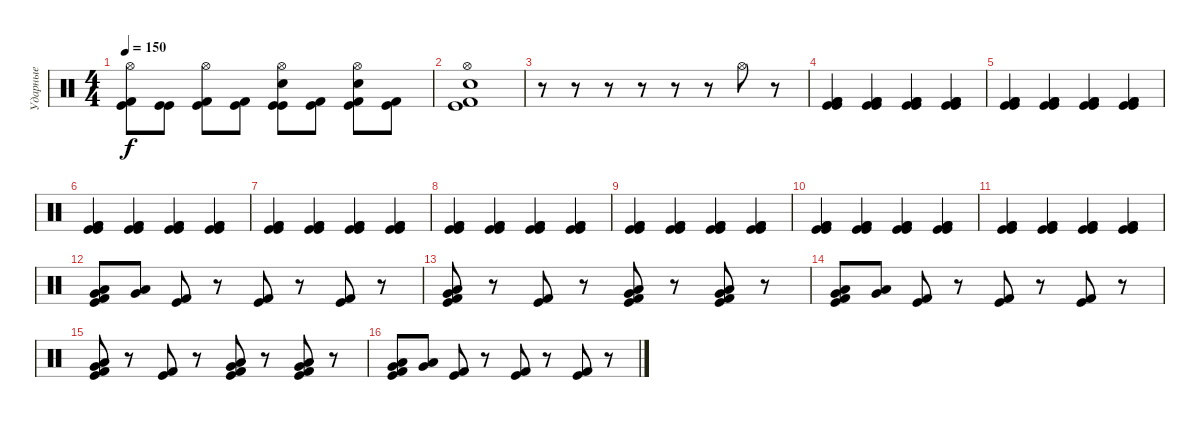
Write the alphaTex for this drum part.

\track ("Ударные" "Ударные") {instrument percussion}
\staff {score}
\articulation defaults
\ts (4 4)
\tempo 150
\clef neutral
\ks c
("Hi-Hat (open)" "Kick (hit)" "Kick (hit) 2").8{dy f} ("Kick (hit)" "Kick (hit)").8 ("Hi-Hat (open)" "Kick (hit)" "Kick (hit) 2").8 ("Kick (hit)" "Kick (hit) 2").8 ("Hi-Hat (open)" "Electric Snare (hit)" "Kick (hit)" "Kick (hit)").8 ("Kick (hit)" "Kick (hit) 2").8 ("Hi-Hat (open)" "Electric Snare (hit)" "Kick (hit) 2" "Kick (hit)").8 ("Kick (hit)" "Kick (hit) 2").8 |
("Hi-Hat (open)" "Kick (hit)" "Kick (hit) 2" "Electric Snare (hit)").1 |
r.8 r.8 r.8 r.8 r.8 r.8 "Hi-Hat (open)".8 r.8 |
("Kick (hit)" "Kick (hit) 2" "Kick (hit)" "Kick (hit) 2").4 ("Kick (hit)" "Kick (hit) 2" "Kick (hit)" "Kick (hit) 2").4 ("Kick (hit)" "Kick (hit) 2" "Kick (hit)" "Kick (hit) 2").4 ("Kick (hit)" "Kick (hit) 2" "Kick (hit)" "Kick (hit) 2").4 |
("Kick (hit)" "Kick (hit) 2" "Kick (hit)" "Kick (hit) 2").4 ("Kick (hit)" "Kick (hit) 2" "Kick (hit)" "Kick (hit) 2").4 ("Kick (hit)" "Kick (hit) 2" "Kick (hit)" "Kick (hit) 2").4 ("Kick (hit)" "Kick (hit) 2" "Kick (hit)" "Kick (hit) 2").4 |
("Kick (hit)" "Kick (hit) 2" "Kick (hit)" "Kick (hit) 2").4 ("Kick (hit)" "Kick (hit) 2" "Kick (hit)" "Kick (hit) 2").4 ("Kick (hit)" "Kick (hit) 2" "Kick (hit)" "Kick (hit) 2").4 ("Kick (hit)" "Kick (hit) 2" "Kick (hit)" "Kick (hit) 2").4 |
("Kick (hit)" "Kick (hit) 2" "Kick (hit)" "Kick (hit) 2").4 ("Kick (hit)" "Kick (hit) 2" "Kick (hit)" "Kick (hit) 2").4 ("Kick (hit)" "Kick (hit) 2" "Kick (hit)" "Kick (hit) 2").4 ("Kick (hit)" "Kick (hit) 2" "Kick (hit)" "Kick (hit) 2").4 |
("Kick (hit)" "Kick (hit) 2" "Kick (hit)" "Kick (hit) 2").4 ("Kick (hit)" "Kick (hit) 2" "Kick (hit)" "Kick (hit) 2").4 ("Kick (hit)" "Kick (hit) 2" "Kick (hit)" "Kick (hit) 2").4 ("Kick (hit)" "Kick (hit) 2" "Kick (hit)" "Kick (hit) 2").4 |
("Kick (hit)" "Kick (hit) 2" "Kick (hit)" "Kick (hit) 2").4 ("Kick (hit)" "Kick (hit) 2" "Kick (hit)" "Kick (hit) 2").4 ("Kick (hit)" "Kick (hit) 2" "Kick (hit)" "Kick (hit) 2").4 ("Kick (hit)" "Kick (hit) 2" "Kick (hit)" "Kick (hit) 2").4 |
("Kick (hit)" "Kick (hit) 2" "Kick (hit)" "Kick (hit) 2").4 ("Kick (hit)" "Kick (hit) 2" "Kick (hit)" "Kick (hit) 2").4 ("Kick (hit)" "Kick (hit) 2" "Kick (hit)" "Kick (hit) 2").4 ("Kick (hit)" "Kick (hit) 2" "Kick (hit)" "Kick (hit) 2").4 |
("Kick (hit)" "Kick (hit) 2" "Kick (hit)" "Kick (hit) 2").4 ("Kick (hit)" "Kick (hit) 2" "Kick (hit)" "Kick (hit) 2").4 ("Kick (hit)" "Kick (hit) 2" "Kick (hit)" "Kick (hit) 2").4 ("Kick (hit)" "Kick (hit) 2" "Kick (hit)" "Kick (hit) 2").4 |
("Low Tom (hit)" "Very Low Tom (hit)" "Kick (hit)" "Kick (hit) 2").8 ("Low Tom (hit)" "Very Low Tom (hit)").8 ("Kick (hit) 2" "Kick (hit)").8 r.8 ("Kick (hit) 2" "Kick (hit)").8 r.8 ("Kick (hit) 2" "Kick (hit)").8 r.8 |
("Low Tom (hit)" "Very Low Tom (hit)" "Kick (hit)" "Kick (hit) 2").8 r.8 ("Kick (hit) 2" "Kick (hit)").8 r.8 ("Low Tom (hit)" "Very Low Tom (hit)" "Kick (hit) 2" "Kick (hit)").8 r.8 ("Low Tom (hit)" "Very Low Tom (hit)" "Kick (hit) 2" "Kick (hit)").8 r.8 |
("Low Tom (hit)" "Very Low Tom (hit)" "Kick (hit)" "Kick (hit) 2").8 ("Low Tom (hit)" "Very Low Tom (hit)").8 ("Kick (hit) 2" "Kick (hit)").8 r.8 ("Kick (hit) 2" "Kick (hit)").8 r.8 ("Kick (hit) 2" "Kick (hit)").8 r.8 |
("Low Tom (hit)" "Very Low Tom (hit)" "Kick (hit)" "Kick (hit) 2").8 r.8 ("Kick (hit) 2" "Kick (hit)").8 r.8 ("Low Tom (hit)" "Very Low Tom (hit)" "Kick (hit) 2" "Kick (hit)").8 r.8 ("Low Tom (hit)" "Very Low Tom (hit)" "Kick (hit) 2" "Kick (hit)").8 r.8 |
("Low Tom (hit)" "Very Low Tom (hit)" "Kick (hit)" "Kick (hit) 2").8 ("Low Tom (hit)" "Very Low Tom (hit)").8 ("Kick (hit) 2" "Kick (hit)").8 r.8 ("Kick (hit) 2" "Kick (hit)").8 r.8 ("Kick (hit) 2" "Kick (hit)").8 r.8
